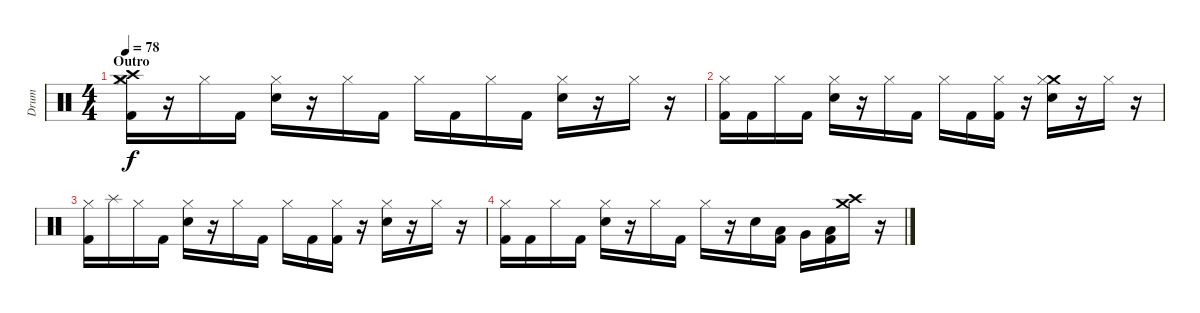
\track ("Drum" "Drum") {instrument percussion}
\staff {score}
\articulation defaults
\ts (4 4)
\section ("" "Outro")
\tempo 78
\clef neutral
\ks c
("Crash high (hit)" "Crash medium (hit)" "Kick (hit) 2" "Hi-Hat (closed)").16{dy f} r.16 "Hi-Hat (closed)".16 "Kick (hit) 2".16 ("Electric Snare (hit)" "Hi-Hat (closed)").16 r.16 "Hi-Hat (closed)".16 "Kick (hit) 2".16 "Hi-Hat (closed)".16 "Kick (hit) 2".16 "Hi-Hat (closed)".16 "Kick (hit) 2".16 ("Electric Snare (hit)" "Hi-Hat (closed)").16 r.16 "Hi-Hat (closed)".16 r.16 |
("Kick (hit) 2" "Hi-Hat (closed)").16 "Kick (hit) 2".16 "Hi-Hat (closed)".16 "Kick (hit) 2".16 ("Electric Snare (hit)" "Hi-Hat (closed)").16 r.16 "Hi-Hat (closed)".16 "Kick (hit) 2".16 "Hi-Hat (closed)".16 "Kick (hit) 2".16 ("Kick (hit) 2" "Hi-Hat (closed)").16 r.16 ("Crash medium (hit)" "Electric Snare (hit)" "Hi-Hat (closed)").16 r.16 "Hi-Hat (closed)".16 r.16 |
("Kick (hit) 2" "Hi-Hat (closed)").16 "Splash (hit)".16 "Hi-Hat (closed)".16 "Kick (hit) 2".16 ("Electric Snare (hit)" "Hi-Hat (closed)").16 r.16 "Hi-Hat (closed)".16 "Kick (hit) 2".16 "Hi-Hat (closed)".16 "Kick (hit) 2".16 ("Kick (hit) 2" "Hi-Hat (closed)").16 r.16 ("Electric Snare (hit)" "Hi-Hat (closed)").16 r.16 "Hi-Hat (closed)".16 r.16 |
("Kick (hit) 2" "Hi-Hat (closed)").16 "Kick (hit) 2".16 "Hi-Hat (closed)".16 "Kick (hit) 2".16 ("Electric Snare (hit)" "Hi-Hat (closed)").16 r.16 "Hi-Hat (closed)".16 "Kick (hit) 2".16 "Hi-Hat (closed)".16 r.16 "Electric Snare (hit)".16 ("Low Tom (hit)" "Kick (hit) 2").16 "Very Low Tom (hit)".16 ("Low Floor Tom (hit)" "Kick (hit) 2").16 ("Crash medium (hit)" "Crash high (hit)").16 r.16
